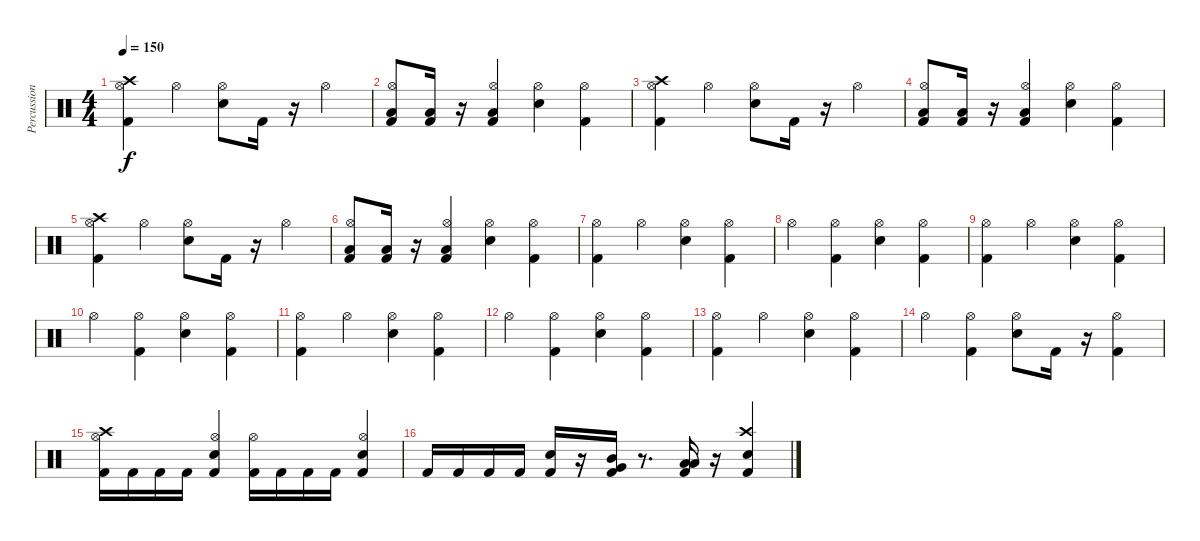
\track ("Percussion" "Percussion") {instrument percussion}
\staff {score}
\articulation defaults
\ts (4 4)
\tempo 150
\clef neutral
\ks c
("Kick (hit) 2" "Hi-Hat (open)" "Crash high (hit)").4{dy f} "Hi-Hat (open)".4 ("Electric Snare (hit)" "Hi-Hat (open)").8 "Kick (hit) 2".16 r.16 "Hi-Hat (open)".4 |
("Kick (hit) 2" "Low Floor Tom (hit)" "Hi-Hat (open)").8 ("Kick (hit) 2" "Low Floor Tom (hit)").16 r.16 ("Kick (hit) 2" "Low Floor Tom (hit)" "Hi-Hat (open)").4 ("Electric Snare (hit)" "Hi-Hat (open)").4 ("Kick (hit) 2" "Hi-Hat (open)").4 |
("Kick (hit) 2" "Hi-Hat (open)" "Crash high (hit)").4 "Hi-Hat (open)".4 ("Electric Snare (hit)" "Hi-Hat (open)").8 "Kick (hit) 2".16 r.16 "Hi-Hat (open)".4 |
("Kick (hit) 2" "Low Floor Tom (hit)" "Hi-Hat (open)").8 ("Kick (hit) 2" "Low Floor Tom (hit)").16 r.16 ("Kick (hit) 2" "Low Floor Tom (hit)" "Hi-Hat (open)").4 ("Electric Snare (hit)" "Hi-Hat (open)").4 ("Kick (hit) 2" "Hi-Hat (open)").4 |
("Kick (hit) 2" "Hi-Hat (open)" "Crash high (hit)").4 "Hi-Hat (open)".4 ("Electric Snare (hit)" "Hi-Hat (open)").8 "Kick (hit) 2".16 r.16 "Hi-Hat (open)".4 |
("Kick (hit) 2" "Low Floor Tom (hit)" "Hi-Hat (open)").8 ("Kick (hit) 2" "Low Floor Tom (hit)").16 r.16 ("Kick (hit) 2" "Low Floor Tom (hit)" "Hi-Hat (open)").4 ("Electric Snare (hit)" "Hi-Hat (open)").4 ("Kick (hit) 2" "Hi-Hat (open)").4 |
("Kick (hit) 2" "Hi-Hat (open)").4 "Hi-Hat (open)".4 ("Electric Snare (hit)" "Hi-Hat (open)").4 ("Kick (hit) 2" "Hi-Hat (open)").4 |
"Hi-Hat (open)".4 ("Kick (hit) 2" "Hi-Hat (open)").4 ("Electric Snare (hit)" "Hi-Hat (open)").4 ("Kick (hit) 2" "Hi-Hat (open)").4 |
("Kick (hit) 2" "Hi-Hat (open)").4 "Hi-Hat (open)".4 ("Electric Snare (hit)" "Hi-Hat (open)").4 ("Kick (hit) 2" "Hi-Hat (open)").4 |
"Hi-Hat (open)".4 ("Kick (hit) 2" "Hi-Hat (open)").4 ("Electric Snare (hit)" "Hi-Hat (open)").4 ("Kick (hit) 2" "Hi-Hat (open)").4 |
("Kick (hit) 2" "Hi-Hat (open)").4 "Hi-Hat (open)".4 ("Electric Snare (hit)" "Hi-Hat (open)").4 ("Kick (hit) 2" "Hi-Hat (open)").4 |
"Hi-Hat (open)".4 ("Kick (hit) 2" "Hi-Hat (open)").4 ("Electric Snare (hit)" "Hi-Hat (open)").4 ("Kick (hit) 2" "Hi-Hat (open)").4 |
("Kick (hit) 2" "Hi-Hat (open)").4 "Hi-Hat (open)".4 ("Electric Snare (hit)" "Hi-Hat (open)").4 ("Kick (hit) 2" "Hi-Hat (open)").4 |
"Hi-Hat (open)".4 ("Kick (hit) 2" "Hi-Hat (open)").4 ("Electric Snare (hit)" "Hi-Hat (open)").8 "Kick (hit) 2".16 r.16 ("Kick (hit) 2" "Hi-Hat (open)").4 |
("Kick (hit) 2" "Hi-Hat (open)" "Crash high (hit)").16 "Kick (hit) 2".16 "Kick (hit) 2".16 "Kick (hit) 2".16 ("Kick (hit) 2" "Electric Snare (hit)" "Hi-Hat (open)").4 ("Kick (hit) 2" "Hi-Hat (open)").16 "Kick (hit) 2".16 "Kick (hit) 2".16 "Kick (hit) 2".16 ("Kick (hit) 2" "Electric Snare (hit)" "Hi-Hat (open)").4 |
"Kick (hit) 2".16 "Kick (hit) 2".16 "Kick (hit) 2".16 "Kick (hit) 2".16 ("Kick (hit) 2" "Electric Snare (hit)").16 r.16 ("Kick (hit) 2" "Very Low Tom (hit)" "Mid Tom (hit)").16 r.8{d} ("Kick (hit) 2" "Low Floor Tom (hit)" "Low Tom (hit)").16 r.16 ("Kick (hit) 2" "Electric Snare (hit)" "Crash high (hit)").4
